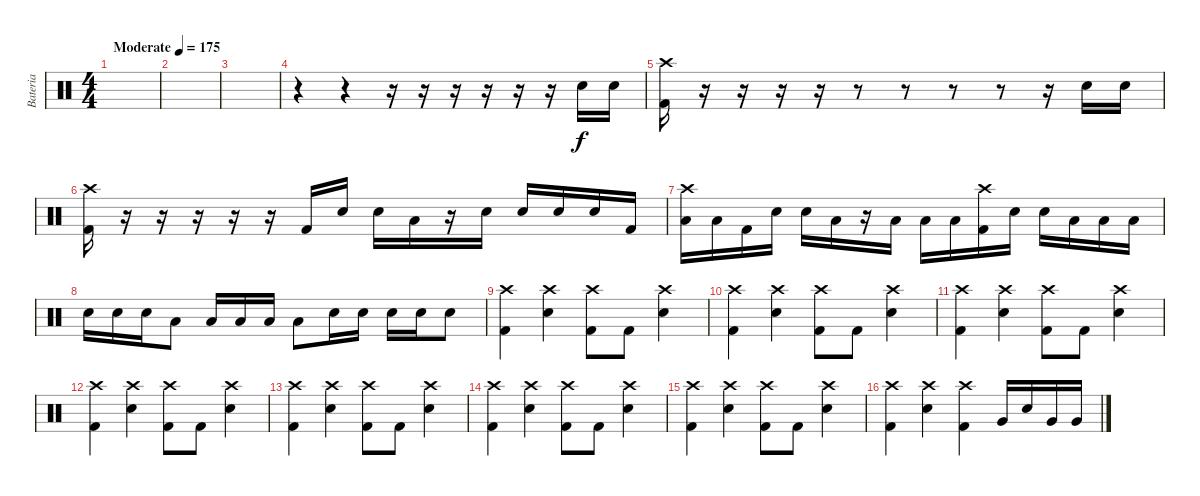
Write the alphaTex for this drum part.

\track ("Bateria" "Bateria") {instrument percussion}
\staff {score}
\articulation defaults
\ts (4 4)
\tempo (175 "Moderate")
\clef neutral
\ks c
|
|
|
r.4 r.4 r.16 r.16 r.16 r.16 r.16 r.16 "Electric Snare (hit)".16 "Electric Snare (hit)".16 |
("Crash high (hit)" "Kick (hit) 2").16 r.16 r.16 r.16 r.16 r.8 r.8 r.8 r.8 r.16 "Electric Snare (hit)".16 "Electric Snare (hit)".16 |
("Crash high (hit)" "Kick (hit) 2").16 r.16 r.16 r.16 r.16 r.16 "Kick (hit) 2".16 "Electric Snare (hit)".16 "Electric Snare (hit)".16 "Low Tom (hit)".16 r.16 "Electric Snare (hit)".16 "Electric Snare (hit)".16 "Electric Snare (hit)".16 "Electric Snare (hit)".16 "Kick (hit) 2".16 |
("Crash high (hit)" "Low Tom (hit)").16 "Low Tom (hit)".16 "Kick (hit) 2".16 "Electric Snare (hit)".16 "Electric Snare (hit)".16 "Low Tom (hit)".16 r.16 "Low Floor Tom (hit)".16 "Low Tom (hit)".16 "Low Tom (hit)".16 ("Crash high (hit)" "Kick (hit) 2").16 "Electric Snare (hit)".16 "Electric Snare (hit)".16 "Low Tom (hit)".16 "Low Tom (hit)".16 "Low Floor Tom (hit)".16 |
"Electric Snare (hit)".16 "Electric Snare (hit)".16 "Electric Snare (hit)".16 "Low Tom (hit)".8 "Low Tom (hit)".16 "Low Tom (hit)".16 "Low Tom (hit)".16 "Low Tom (hit)".8 "Electric Snare (hit)".16 "Electric Snare (hit)".16 "Electric Snare (hit)".16 "Electric Snare (hit)".16 "Electric Snare (hit)".8 |
("Crash high (hit)" "Kick (hit) 2").4 ("Crash high (hit)" "Electric Snare (hit)").4 ("Crash high (hit)" "Kick (hit) 2").8 "Kick (hit) 2".8 ("Crash high (hit)" "Electric Snare (hit)").4 |
("Crash high (hit)" "Kick (hit) 2").4 ("Crash high (hit)" "Electric Snare (hit)").4 ("Crash high (hit)" "Kick (hit) 2").8 "Kick (hit) 2".8 ("Crash high (hit)" "Electric Snare (hit)").4 |
("Crash high (hit)" "Kick (hit) 2").4 ("Crash high (hit)" "Electric Snare (hit)").4 ("Crash high (hit)" "Kick (hit) 2").8 "Kick (hit) 2".8 ("Crash high (hit)" "Electric Snare (hit)").4 |
("Crash high (hit)" "Kick (hit) 2").4 ("Crash high (hit)" "Electric Snare (hit)").4 ("Crash high (hit)" "Kick (hit) 2").8 "Kick (hit) 2".8 ("Crash high (hit)" "Electric Snare (hit)").4 |
("Crash high (hit)" "Kick (hit) 2").4 ("Crash high (hit)" "Electric Snare (hit)").4 ("Crash high (hit)" "Kick (hit) 2").8 "Kick (hit) 2".8 ("Crash high (hit)" "Electric Snare (hit)").4 |
("Crash high (hit)" "Kick (hit) 2").4 ("Crash high (hit)" "Electric Snare (hit)").4 ("Crash high (hit)" "Kick (hit) 2").8 "Kick (hit) 2".8 ("Crash high (hit)" "Electric Snare (hit)").4 |
("Crash high (hit)" "Kick (hit) 2").4 ("Crash high (hit)" "Electric Snare (hit)").4 ("Crash high (hit)" "Kick (hit) 2").8 "Kick (hit) 2".8 ("Crash high (hit)" "Electric Snare (hit)").4 |
("Crash high (hit)" "Kick (hit) 2").4 ("Crash high (hit)" "Electric Snare (hit)").4 ("Crash high (hit)" "Kick (hit) 2").4 "Very Low Tom (hit)".16 "Electric Snare (hit)".16 "Very Low Tom (hit)".16 "Very Low Tom (hit)".16
